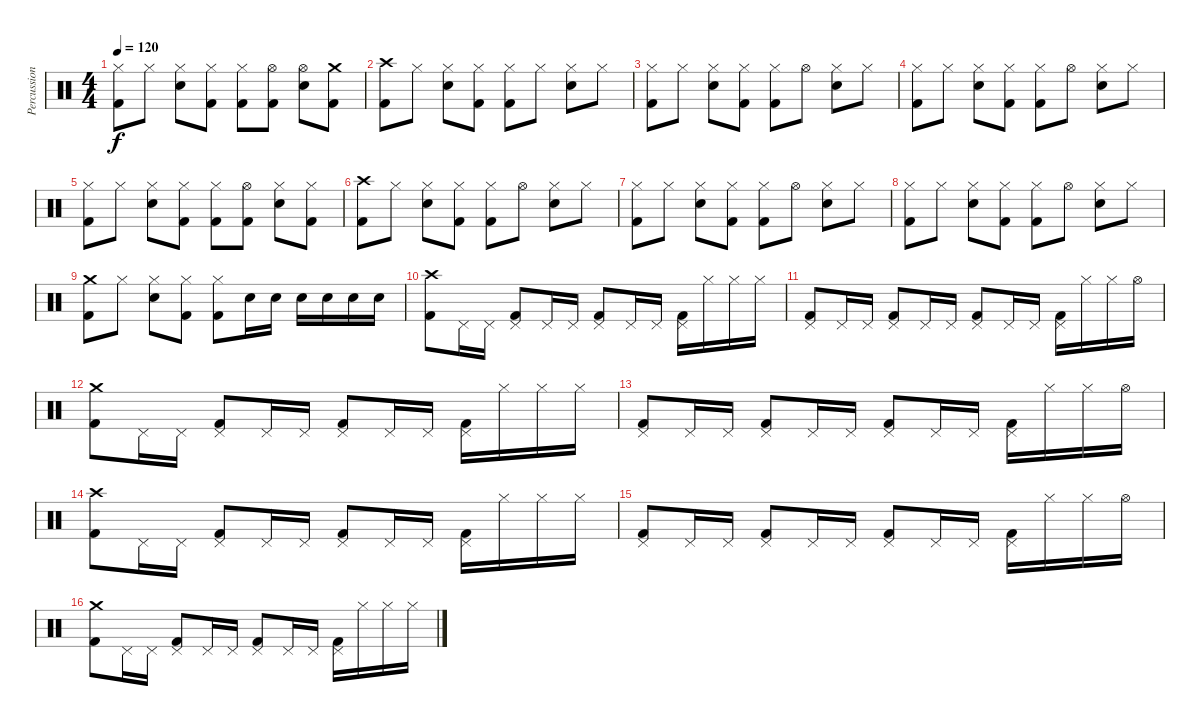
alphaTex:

\track ("Percussion" "Percussion") {instrument percussion}
\staff {score}
\articulation defaults
\ts (4 4)
\tempo 120
\clef neutral
\ks c
("Hi-Hat (closed)" "Kick (hit) 2").8{dy f} "Hi-Hat (closed)".8 ("Hi-Hat (closed)" "Electric Snare (hit)").8 ("Hi-Hat (closed)" "Kick (hit) 2").8 ("Hi-Hat (closed)" "Kick (hit) 2").8 ("Hi-Hat (open)" "Kick (hit) 2").8 ("Hi-Hat (open)" "Electric Snare (hit)").8 ("Crash medium (hit)" "Kick (hit) 2").8 |
("Crash high (hit)" "Kick (hit) 2").8 "Hi-Hat (closed)".8 ("Hi-Hat (closed)" "Electric Snare (hit)").8 ("Hi-Hat (closed)" "Kick (hit) 2").8 ("Hi-Hat (closed)" "Kick (hit) 2").8 "Hi-Hat (closed)".8 ("Hi-Hat (closed)" "Electric Snare (hit)").8 "Hi-Hat (closed)".8 |
("Hi-Hat (closed)" "Kick (hit) 2").8 "Hi-Hat (closed)".8 ("Hi-Hat (closed)" "Electric Snare (hit)").8 ("Hi-Hat (closed)" "Kick (hit) 2").8 ("Hi-Hat (closed)" "Kick (hit) 2").8 "Hi-Hat (open)".8 ("Hi-Hat (closed)" "Electric Snare (hit)").8 "Hi-Hat (closed)".8 |
("Hi-Hat (closed)" "Kick (hit) 2").8 "Hi-Hat (closed)".8 ("Hi-Hat (closed)" "Electric Snare (hit)").8 ("Hi-Hat (closed)" "Kick (hit) 2").8 ("Hi-Hat (closed)" "Kick (hit) 2").8 "Hi-Hat (open)".8 ("Hi-Hat (closed)" "Electric Snare (hit)").8 "Hi-Hat (closed)".8 |
("Hi-Hat (closed)" "Kick (hit) 2").8 "Hi-Hat (closed)".8 ("Hi-Hat (closed)" "Electric Snare (hit)").8 ("Hi-Hat (closed)" "Kick (hit) 2").8 ("Hi-Hat (closed)" "Kick (hit) 2").8 ("Hi-Hat (open)" "Kick (hit) 2").8 ("Hi-Hat (closed)" "Electric Snare (hit)").8 ("Hi-Hat (closed)" "Kick (hit) 2").8 |
("Crash high (hit)" "Kick (hit) 2").8 "Hi-Hat (closed)".8 ("Hi-Hat (closed)" "Electric Snare (hit)").8 ("Hi-Hat (closed)" "Kick (hit) 2").8 ("Hi-Hat (closed)" "Kick (hit) 2").8 "Hi-Hat (open)".8 ("Hi-Hat (closed)" "Electric Snare (hit)").8 "Hi-Hat (closed)".8 |
("Hi-Hat (closed)" "Kick (hit) 2").8 "Hi-Hat (closed)".8 ("Hi-Hat (closed)" "Electric Snare (hit)").8 ("Hi-Hat (closed)" "Kick (hit) 2").8 ("Hi-Hat (closed)" "Kick (hit) 2").8 "Hi-Hat (open)".8 ("Hi-Hat (closed)" "Electric Snare (hit)").8 "Hi-Hat (closed)".8 |
("Hi-Hat (closed)" "Kick (hit) 2").8 "Hi-Hat (closed)".8 ("Hi-Hat (closed)" "Electric Snare (hit)").8 ("Hi-Hat (closed)" "Kick (hit) 2").8 ("Hi-Hat (closed)" "Kick (hit) 2").8 "Hi-Hat (open)".8 ("Hi-Hat (closed)" "Electric Snare (hit)").8 "Hi-Hat (closed)".8 |
("Crash medium (hit)" "Kick (hit) 2").8 "Hi-Hat (closed)".8 ("Hi-Hat (closed)" "Electric Snare (hit)").8 ("Hi-Hat (closed)" "Kick (hit) 2").8 ("Hi-Hat (closed)" "Kick (hit) 2").8 "Electric Snare (hit)".16 "Electric Snare (hit)".16 "Electric Snare (hit)".16 "Electric Snare (hit)".16 "Electric Snare (hit)".16 "Electric Snare (hit)".16 |
("Crash high (hit)" "Kick (hit) 2").8 "Pedal Hi-Hat (hit)".16 "Pedal Hi-Hat (hit)".16 ("Pedal Hi-Hat (hit)" "Kick (hit) 2").8 "Pedal Hi-Hat (hit)".16 "Pedal Hi-Hat (hit)".16 ("Pedal Hi-Hat (hit)" "Kick (hit) 2").8 "Pedal Hi-Hat (hit)".16 "Pedal Hi-Hat (hit)".16 ("Pedal Hi-Hat (hit)" "Kick (hit) 2").16 "Hi-Hat (closed)".16 "Hi-Hat (closed)".16 "Hi-Hat (closed)".16 |
("Pedal Hi-Hat (hit)" "Kick (hit) 2").8 "Pedal Hi-Hat (hit)".16 "Pedal Hi-Hat (hit)".16 ("Pedal Hi-Hat (hit)" "Kick (hit) 2").8 "Pedal Hi-Hat (hit)".16 "Pedal Hi-Hat (hit)".16 ("Pedal Hi-Hat (hit)" "Kick (hit) 2").8 "Pedal Hi-Hat (hit)".16 "Pedal Hi-Hat (hit)".16 ("Pedal Hi-Hat (hit)" "Kick (hit) 2").16 "Hi-Hat (closed)".16 "Hi-Hat (closed)".16 "Hi-Hat (open)".16 |
("Crash medium (hit)" "Kick (hit) 2").8 "Pedal Hi-Hat (hit)".16 "Pedal Hi-Hat (hit)".16 ("Pedal Hi-Hat (hit)" "Kick (hit) 2").8 "Pedal Hi-Hat (hit)".16 "Pedal Hi-Hat (hit)".16 ("Pedal Hi-Hat (hit)" "Kick (hit) 2").8 "Pedal Hi-Hat (hit)".16 "Pedal Hi-Hat (hit)".16 ("Pedal Hi-Hat (hit)" "Kick (hit) 2").16 "Hi-Hat (closed)".16 "Hi-Hat (closed)".16 "Hi-Hat (closed)".16 |
("Pedal Hi-Hat (hit)" "Kick (hit) 2").8 "Pedal Hi-Hat (hit)".16 "Pedal Hi-Hat (hit)".16 ("Pedal Hi-Hat (hit)" "Kick (hit) 2").8 "Pedal Hi-Hat (hit)".16 "Pedal Hi-Hat (hit)".16 ("Pedal Hi-Hat (hit)" "Kick (hit) 2").8 "Pedal Hi-Hat (hit)".16 "Pedal Hi-Hat (hit)".16 ("Pedal Hi-Hat (hit)" "Kick (hit) 2").16 "Hi-Hat (closed)".16 "Hi-Hat (closed)".16 "Hi-Hat (open)".16 |
("Crash high (hit)" "Kick (hit) 2").8 "Pedal Hi-Hat (hit)".16 "Pedal Hi-Hat (hit)".16 ("Pedal Hi-Hat (hit)" "Kick (hit) 2").8 "Pedal Hi-Hat (hit)".16 "Pedal Hi-Hat (hit)".16 ("Pedal Hi-Hat (hit)" "Kick (hit) 2").8 "Pedal Hi-Hat (hit)".16 "Pedal Hi-Hat (hit)".16 ("Pedal Hi-Hat (hit)" "Kick (hit) 2").16 "Hi-Hat (closed)".16 "Hi-Hat (closed)".16 "Hi-Hat (closed)".16 |
("Pedal Hi-Hat (hit)" "Kick (hit) 2").8 "Pedal Hi-Hat (hit)".16 "Pedal Hi-Hat (hit)".16 ("Pedal Hi-Hat (hit)" "Kick (hit) 2").8 "Pedal Hi-Hat (hit)".16 "Pedal Hi-Hat (hit)".16 ("Pedal Hi-Hat (hit)" "Kick (hit) 2").8 "Pedal Hi-Hat (hit)".16 "Pedal Hi-Hat (hit)".16 ("Pedal Hi-Hat (hit)" "Kick (hit) 2").16 "Hi-Hat (closed)".16 "Hi-Hat (closed)".16 "Hi-Hat (open)".16 |
("Crash medium (hit)" "Kick (hit) 2").8 "Pedal Hi-Hat (hit)".16 "Pedal Hi-Hat (hit)".16 ("Pedal Hi-Hat (hit)" "Kick (hit) 2").8 "Pedal Hi-Hat (hit)".16 "Pedal Hi-Hat (hit)".16 ("Pedal Hi-Hat (hit)" "Kick (hit) 2").8 "Pedal Hi-Hat (hit)".16 "Pedal Hi-Hat (hit)".16 ("Pedal Hi-Hat (hit)" "Kick (hit) 2").16 "Hi-Hat (closed)".16 "Hi-Hat (closed)".16 "Hi-Hat (closed)".16
